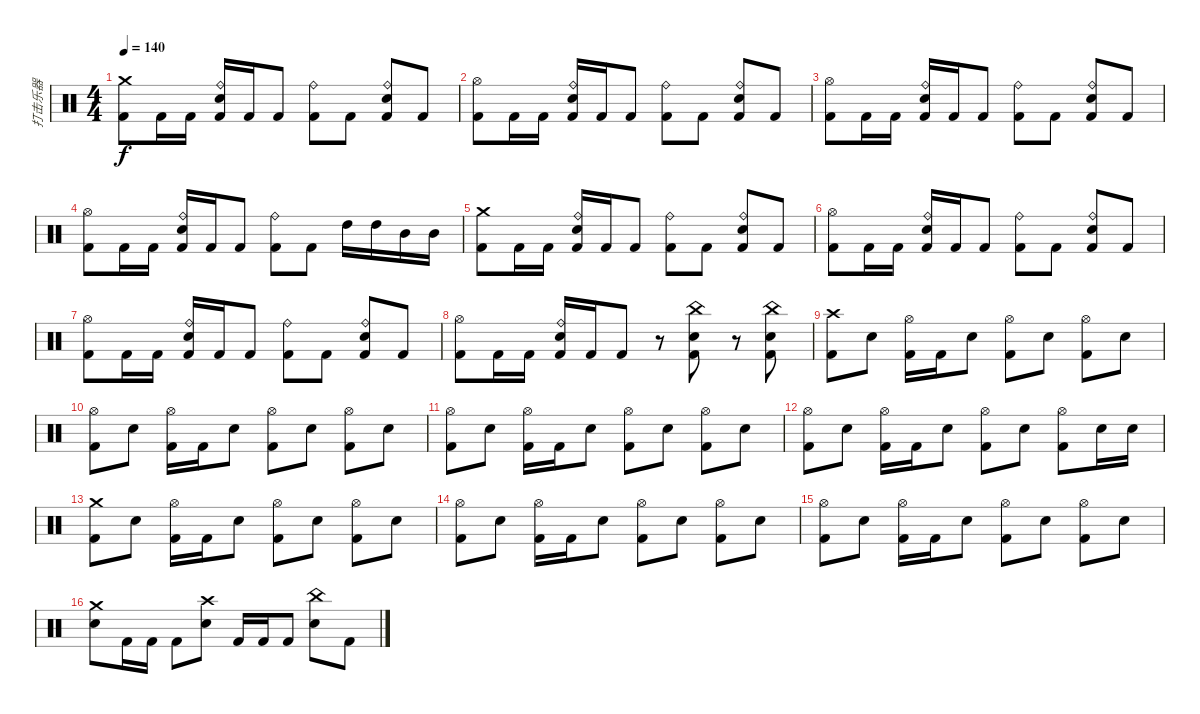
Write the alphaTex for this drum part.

\track ("打击乐器" "打击乐器") {instrument percussion}
\staff {score}
\articulation defaults
\ts (4 4)
\tempo 140
\clef neutral
\ks c
("Crash medium (hit)" "Kick (hit) 2").8{dy f} "Kick (hit) 2".16 "Kick (hit) 2".16 ("Ride (bell)" "Snare (hit) 2" "Kick (hit) 2").16 "Kick (hit) 2".16 "Kick (hit) 2".8 ("Ride (bell)" "Kick (hit) 2").8 "Kick (hit) 2".8 ("Ride (bell)" "Snare (hit) 2" "Kick (hit) 2").8 "Kick (hit) 2".8 |
("Hi-Hat (open)" "Kick (hit) 2").8 "Kick (hit) 2".16 "Kick (hit) 2".16 ("Ride (bell)" "Snare (hit) 2" "Kick (hit) 2").16 "Kick (hit) 2".16 "Kick (hit) 2".8 ("Ride (bell)" "Kick (hit) 2").8 "Kick (hit) 2".8 ("Ride (bell)" "Snare (hit) 2" "Kick (hit) 2").8 "Kick (hit) 2".8 |
("Hi-Hat (open)" "Kick (hit) 2").8 "Kick (hit) 2".16 "Kick (hit) 2".16 ("Ride (bell)" "Snare (hit) 2" "Kick (hit) 2").16 "Kick (hit) 2".16 "Kick (hit) 2".8 ("Ride (bell)" "Kick (hit) 2").8 "Kick (hit) 2".8 ("Ride (bell)" "Snare (hit) 2" "Kick (hit) 2").8 "Kick (hit) 2".8 |
("Hi-Hat (open)" "Kick (hit) 2").8 "Kick (hit) 2".16 "Kick (hit) 2".16 ("Ride (bell)" "Snare (hit) 2" "Kick (hit) 2").16 "Kick (hit) 2".16 "Kick (hit) 2".8 ("Ride (bell)" "Kick (hit) 2").8 "Kick (hit) 2".8 "High Tom (hit)".16 "High Tom (hit)".16 "Mid Tom (hit)".16 "Mid Tom (hit)".16 |
("Crash medium (hit)" "Kick (hit) 2").8 "Kick (hit) 2".16 "Kick (hit) 2".16 ("Ride (bell)" "Snare (hit) 2" "Kick (hit) 2").16 "Kick (hit) 2".16 "Kick (hit) 2".8 ("Ride (bell)" "Kick (hit) 2").8 "Kick (hit) 2".8 ("Ride (bell)" "Snare (hit) 2" "Kick (hit) 2").8 "Kick (hit) 2".8 |
("Hi-Hat (open)" "Kick (hit) 2").8 "Kick (hit) 2".16 "Kick (hit) 2".16 ("Ride (bell)" "Snare (hit) 2" "Kick (hit) 2").16 "Kick (hit) 2".16 "Kick (hit) 2".8 ("Ride (bell)" "Kick (hit) 2").8 "Kick (hit) 2".8 ("Ride (bell)" "Snare (hit) 2" "Kick (hit) 2").8 "Kick (hit) 2".8 |
("Hi-Hat (open)" "Kick (hit) 2").8 "Kick (hit) 2".16 "Kick (hit) 2".16 ("Ride (bell)" "Snare (hit) 2" "Kick (hit) 2").16 "Kick (hit) 2".16 "Kick (hit) 2".8 ("Ride (bell)" "Kick (hit) 2").8 "Kick (hit) 2".8 ("Ride (bell)" "Snare (hit) 2" "Kick (hit) 2").8 "Kick (hit) 2".8 |
("Hi-Hat (open)" "Kick (hit) 2").8 "Kick (hit) 2".16 "Kick (hit) 2".16 ("Ride (bell)" "Snare (hit) 2" "Kick (hit) 2").16 "Kick (hit) 2".16 "Kick (hit) 2".8 r.8 ("China (hit)" "Snare (hit) 2" "Kick (hit) 2").8 r.8 ("China (hit)" "Snare (hit) 2" "Kick (hit) 2").8 |
("Crash high (hit)" "Kick (hit) 2").8 "Snare (hit) 2".8 ("Hi-Hat (open)" "Kick (hit) 2").16 "Kick (hit) 2".16 "Snare (hit) 2".8 ("Hi-Hat (open)" "Kick (hit) 2").8 "Snare (hit) 2".8 ("Hi-Hat (open)" "Kick (hit) 2").8 "Snare (hit) 2".8 |
("Hi-Hat (open)" "Kick (hit) 2").8 "Snare (hit) 2".8 ("Hi-Hat (open)" "Kick (hit) 2").16 "Kick (hit) 2".16 "Snare (hit) 2".8 ("Hi-Hat (open)" "Kick (hit) 2").8 "Snare (hit) 2".8 ("Hi-Hat (open)" "Kick (hit) 2").8 "Snare (hit) 2".8 |
("Hi-Hat (open)" "Kick (hit) 2").8 "Snare (hit) 2".8 ("Hi-Hat (open)" "Kick (hit) 2").16 "Kick (hit) 2".16 "Snare (hit) 2".8 ("Hi-Hat (open)" "Kick (hit) 2").8 "Snare (hit) 2".8 ("Hi-Hat (open)" "Kick (hit) 2").8 "Snare (hit) 2".8 |
("Hi-Hat (open)" "Kick (hit) 2").8 "Snare (hit) 2".8 ("Hi-Hat (open)" "Kick (hit) 2").16 "Kick (hit) 2".16 "Snare (hit) 2".8 ("Hi-Hat (open)" "Kick (hit) 2").8 "Snare (hit) 2".8 ("Hi-Hat (open)" "Kick (hit) 2").8 "Snare (hit) 2".16 "Snare (hit) 2".16 |
("Crash medium (hit)" "Kick (hit) 2").8 "Snare (hit) 2".8 ("Hi-Hat (open)" "Kick (hit) 2").16 "Kick (hit) 2".16 "Snare (hit) 2".8 ("Hi-Hat (open)" "Kick (hit) 2").8 "Snare (hit) 2".8 ("Hi-Hat (open)" "Kick (hit) 2").8 "Snare (hit) 2".8 |
("Hi-Hat (open)" "Kick (hit) 2").8 "Snare (hit) 2".8 ("Hi-Hat (open)" "Kick (hit) 2").16 "Kick (hit) 2".16 "Snare (hit) 2".8 ("Hi-Hat (open)" "Kick (hit) 2").8 "Snare (hit) 2".8 ("Hi-Hat (open)" "Kick (hit) 2").8 "Snare (hit) 2".8 |
("Hi-Hat (open)" "Kick (hit) 2").8 "Snare (hit) 2".8 ("Hi-Hat (open)" "Kick (hit) 2").16 "Kick (hit) 2".16 "Snare (hit) 2".8 ("Hi-Hat (open)" "Kick (hit) 2").8 "Snare (hit) 2".8 ("Hi-Hat (open)" "Kick (hit) 2").8 "Snare (hit) 2".8 |
("Crash medium (hit)" "Snare (hit) 2").8 "Kick (hit) 2".16 "Kick (hit) 2".16 "Kick (hit) 2".8 ("Crash high (hit)" "Snare (hit) 2").8 "Kick (hit) 2".16 "Kick (hit) 2".16 "Kick (hit) 2".8 ("China (hit)" "Snare (hit) 2").8 "Kick (hit) 2".8
